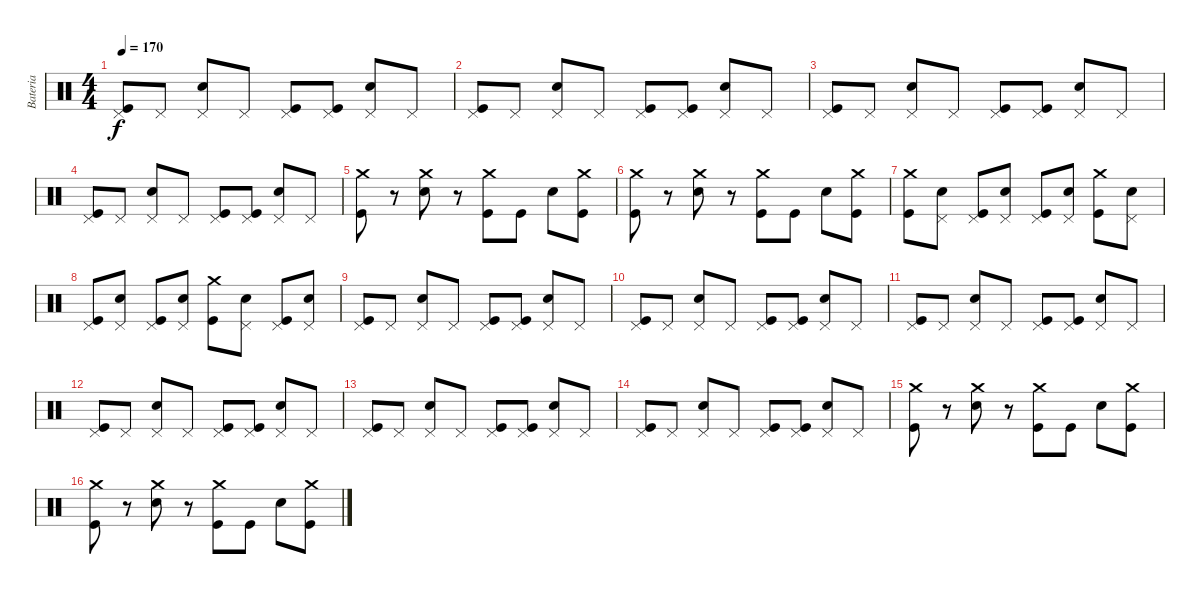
\track ("Bateria" "Bateria") {instrument percussion}
\staff {score}
\articulation defaults
\ts (4 4)
\tempo 170
\clef neutral
\ks c
("Pedal Hi-Hat (hit)" "Kick (hit)").8{dy f} "Pedal Hi-Hat (hit)".8 ("Pedal Hi-Hat (hit)" "Electric Snare (hit)").8 "Pedal Hi-Hat (hit)".8 ("Pedal Hi-Hat (hit)" "Kick (hit)").8 ("Pedal Hi-Hat (hit)" "Kick (hit)").8 ("Pedal Hi-Hat (hit)" "Electric Snare (hit)").8 "Pedal Hi-Hat (hit)".8 |
("Pedal Hi-Hat (hit)" "Kick (hit)").8 "Pedal Hi-Hat (hit)".8 ("Pedal Hi-Hat (hit)" "Electric Snare (hit)").8 "Pedal Hi-Hat (hit)".8 ("Pedal Hi-Hat (hit)" "Kick (hit)").8 ("Pedal Hi-Hat (hit)" "Kick (hit)").8 ("Pedal Hi-Hat (hit)" "Electric Snare (hit)").8 "Pedal Hi-Hat (hit)".8 |
("Pedal Hi-Hat (hit)" "Kick (hit)").8 "Pedal Hi-Hat (hit)".8 ("Pedal Hi-Hat (hit)" "Electric Snare (hit)").8 "Pedal Hi-Hat (hit)".8 ("Pedal Hi-Hat (hit)" "Kick (hit)").8 ("Pedal Hi-Hat (hit)" "Kick (hit)").8 ("Pedal Hi-Hat (hit)" "Electric Snare (hit)").8 "Pedal Hi-Hat (hit)".8 |
("Pedal Hi-Hat (hit)" "Kick (hit)").8 "Pedal Hi-Hat (hit)".8 ("Pedal Hi-Hat (hit)" "Electric Snare (hit)").8 "Pedal Hi-Hat (hit)".8 ("Pedal Hi-Hat (hit)" "Kick (hit)").8 ("Pedal Hi-Hat (hit)" "Kick (hit)").8 ("Pedal Hi-Hat (hit)" "Electric Snare (hit)").8 "Pedal Hi-Hat (hit)".8 |
("Crash medium (hit)" "Kick (hit)").8 r.8 ("Crash medium (hit)" "Electric Snare (hit)").8 r.8 ("Crash medium (hit)" "Kick (hit)").8 "Kick (hit)".8 "Electric Snare (hit)".8 ("Crash medium (hit)" "Kick (hit)").8 |
("Crash medium (hit)" "Kick (hit)").8 r.8 ("Crash medium (hit)" "Electric Snare (hit)").8 r.8 ("Crash medium (hit)" "Kick (hit)").8 "Kick (hit)".8 "Electric Snare (hit)".8 ("Crash medium (hit)" "Kick (hit)").8 |
("Crash medium (hit)" "Kick (hit)").8 ("Pedal Hi-Hat (hit)" "Electric Snare (hit)").8 ("Pedal Hi-Hat (hit)" "Kick (hit)").8 ("Pedal Hi-Hat (hit)" "Electric Snare (hit)").8 ("Pedal Hi-Hat (hit)" "Kick (hit)").8 ("Pedal Hi-Hat (hit)" "Electric Snare (hit)").8 ("Crash medium (hit)" "Kick (hit)").8 ("Pedal Hi-Hat (hit)" "Electric Snare (hit)").8 |
("Pedal Hi-Hat (hit)" "Kick (hit)").8 ("Pedal Hi-Hat (hit)" "Electric Snare (hit)").8 ("Pedal Hi-Hat (hit)" "Kick (hit)").8 ("Pedal Hi-Hat (hit)" "Electric Snare (hit)").8 ("Crash medium (hit)" "Kick (hit)").8 ("Pedal Hi-Hat (hit)" "Electric Snare (hit)").8 ("Pedal Hi-Hat (hit)" "Kick (hit)").8 ("Pedal Hi-Hat (hit)" "Electric Snare (hit)").8 |
("Pedal Hi-Hat (hit)" "Kick (hit)").8 "Pedal Hi-Hat (hit)".8 ("Pedal Hi-Hat (hit)" "Electric Snare (hit)").8 "Pedal Hi-Hat (hit)".8 ("Pedal Hi-Hat (hit)" "Kick (hit)").8 ("Pedal Hi-Hat (hit)" "Kick (hit)").8 ("Pedal Hi-Hat (hit)" "Electric Snare (hit)").8 "Pedal Hi-Hat (hit)".8 |
("Pedal Hi-Hat (hit)" "Kick (hit)").8 "Pedal Hi-Hat (hit)".8 ("Pedal Hi-Hat (hit)" "Electric Snare (hit)").8 "Pedal Hi-Hat (hit)".8 ("Pedal Hi-Hat (hit)" "Kick (hit)").8 ("Pedal Hi-Hat (hit)" "Kick (hit)").8 ("Pedal Hi-Hat (hit)" "Electric Snare (hit)").8 "Pedal Hi-Hat (hit)".8 |
("Pedal Hi-Hat (hit)" "Kick (hit)").8 "Pedal Hi-Hat (hit)".8 ("Pedal Hi-Hat (hit)" "Electric Snare (hit)").8 "Pedal Hi-Hat (hit)".8 ("Pedal Hi-Hat (hit)" "Kick (hit)").8 ("Pedal Hi-Hat (hit)" "Kick (hit)").8 ("Pedal Hi-Hat (hit)" "Electric Snare (hit)").8 "Pedal Hi-Hat (hit)".8 |
("Pedal Hi-Hat (hit)" "Kick (hit)").8 "Pedal Hi-Hat (hit)".8 ("Pedal Hi-Hat (hit)" "Electric Snare (hit)").8 "Pedal Hi-Hat (hit)".8 ("Pedal Hi-Hat (hit)" "Kick (hit)").8 ("Pedal Hi-Hat (hit)" "Kick (hit)").8 ("Pedal Hi-Hat (hit)" "Electric Snare (hit)").8 "Pedal Hi-Hat (hit)".8 |
("Pedal Hi-Hat (hit)" "Kick (hit)").8 "Pedal Hi-Hat (hit)".8 ("Pedal Hi-Hat (hit)" "Electric Snare (hit)").8 "Pedal Hi-Hat (hit)".8 ("Pedal Hi-Hat (hit)" "Kick (hit)").8 ("Pedal Hi-Hat (hit)" "Kick (hit)").8 ("Pedal Hi-Hat (hit)" "Electric Snare (hit)").8 "Pedal Hi-Hat (hit)".8 |
("Pedal Hi-Hat (hit)" "Kick (hit)").8 "Pedal Hi-Hat (hit)".8 ("Pedal Hi-Hat (hit)" "Electric Snare (hit)").8 "Pedal Hi-Hat (hit)".8 ("Pedal Hi-Hat (hit)" "Kick (hit)").8 ("Pedal Hi-Hat (hit)" "Kick (hit)").8 ("Pedal Hi-Hat (hit)" "Electric Snare (hit)").8 "Pedal Hi-Hat (hit)".8 |
("Crash medium (hit)" "Kick (hit)").8 r.8 ("Crash medium (hit)" "Electric Snare (hit)").8 r.8 ("Crash medium (hit)" "Kick (hit)").8 "Kick (hit)".8 "Electric Snare (hit)".8 ("Crash medium (hit)" "Kick (hit)").8 |
("Crash medium (hit)" "Kick (hit)").8 r.8 ("Crash medium (hit)" "Electric Snare (hit)").8 r.8 ("Crash medium (hit)" "Kick (hit)").8 "Kick (hit)".8 "Electric Snare (hit)".8 ("Crash medium (hit)" "Kick (hit)").8
